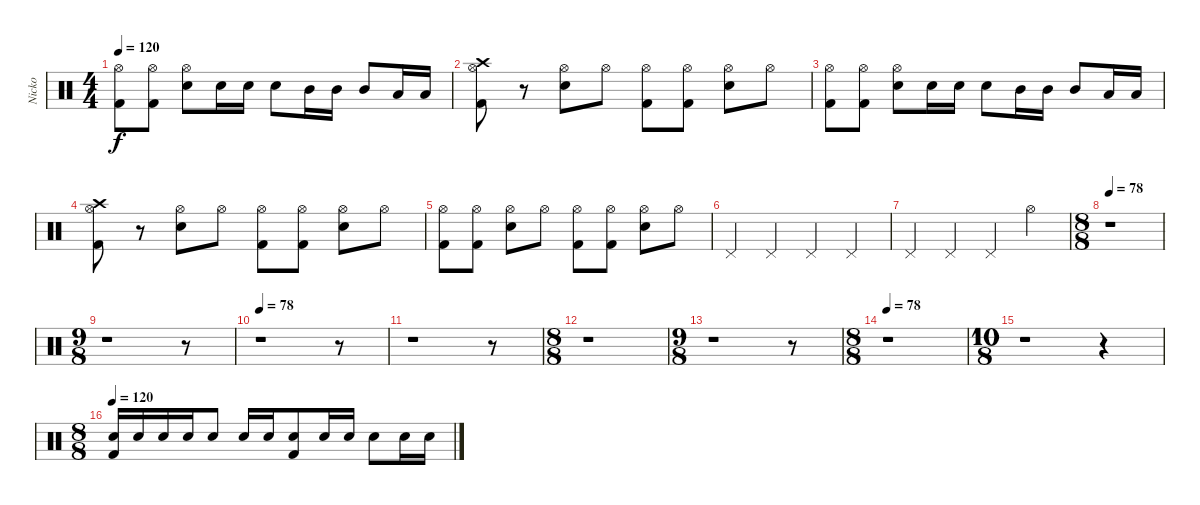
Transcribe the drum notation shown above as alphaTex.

\track ("Nicko" "Nicko") {instrument percussion}
\staff {score}
\articulation defaults
\ts (4 4)
\tempo 120
\clef neutral
\ks c
("Kick (hit) 2" "Hi-Hat (open)").8{dy f} ("Kick (hit) 2" "Hi-Hat (open)").8 ("Snare (hit) 2" "Hi-Hat (open)").8 "Snare (hit) 2".16 "Snare (hit) 2".16 "Snare (hit) 2".8 "Mid Tom (hit)".16 "Mid Tom (hit)".16 "Mid Tom (hit)".8 "Low Tom (hit)".16 "Low Tom (hit)".16 |
("Kick (hit) 2" "Hi-Hat (open)" "Crash high (hit)").8 r.8 ("Snare (hit) 2" "Hi-Hat (open)").8 "Hi-Hat (open)".8 ("Kick (hit) 2" "Hi-Hat (open)").8 ("Kick (hit) 2" "Hi-Hat (open)").8 ("Snare (hit) 2" "Hi-Hat (open)").8 "Hi-Hat (open)".8 |
("Kick (hit) 2" "Hi-Hat (open)").8 ("Kick (hit) 2" "Hi-Hat (open)").8 ("Snare (hit) 2" "Hi-Hat (open)").8 "Snare (hit) 2".16 "Snare (hit) 2".16 "Snare (hit) 2".8 "Mid Tom (hit)".16 "Mid Tom (hit)".16 "Mid Tom (hit)".8 "Low Tom (hit)".16 "Low Tom (hit)".16 |
("Kick (hit) 2" "Hi-Hat (open)" "Crash high (hit)").8 r.8 ("Snare (hit) 2" "Hi-Hat (open)").8 "Hi-Hat (open)".8 ("Kick (hit) 2" "Hi-Hat (open)").8 ("Kick (hit) 2" "Hi-Hat (open)").8 ("Snare (hit) 2" "Hi-Hat (open)").8 "Hi-Hat (open)".8 |
("Kick (hit) 2" "Hi-Hat (open)").8 ("Kick (hit) 2" "Hi-Hat (open)").8 ("Snare (hit) 2" "Hi-Hat (open)").8 "Hi-Hat (open)".8 ("Kick (hit) 2" "Hi-Hat (open)").8 ("Kick (hit) 2" "Hi-Hat (open)").8 ("Snare (hit) 2" "Hi-Hat (open)").8 "Hi-Hat (open)".8 |
"Pedal Hi-Hat (hit)".4 "Pedal Hi-Hat (hit)".4 "Pedal Hi-Hat (hit)".4 "Pedal Hi-Hat (hit)".4 |
"Pedal Hi-Hat (hit)".4 "Pedal Hi-Hat (hit)".4 "Pedal Hi-Hat (hit)".4 "Hi-Hat (open)".4 |
\ts (8 8)
\tempo 78
r.1 |
\ts (9 8)
r.1 r.8 |
\tempo 78
r.1 r.8 |
r.1 r.8 |
\ts (8 8)
r.1 |
\ts (9 8)
r.1 r.8 |
\ts (8 8)
\tempo 78
r.1 |
\ts (10 8)
r.1 r.4 |
\ts (8 8)
\tempo 120
("Electric Snare (hit)" "Kick (hit) 2").16 "Electric Snare (hit)".16 "Electric Snare (hit)".16 "Electric Snare (hit)".16 "Electric Snare (hit)".8 "Electric Snare (hit)".16 "Electric Snare (hit)".16 ("Electric Snare (hit)" "Kick (hit) 2").8 "Electric Snare (hit)".16 "Electric Snare (hit)".16 "Electric Snare (hit)".8 "Electric Snare (hit)".16 "Electric Snare (hit)".16
